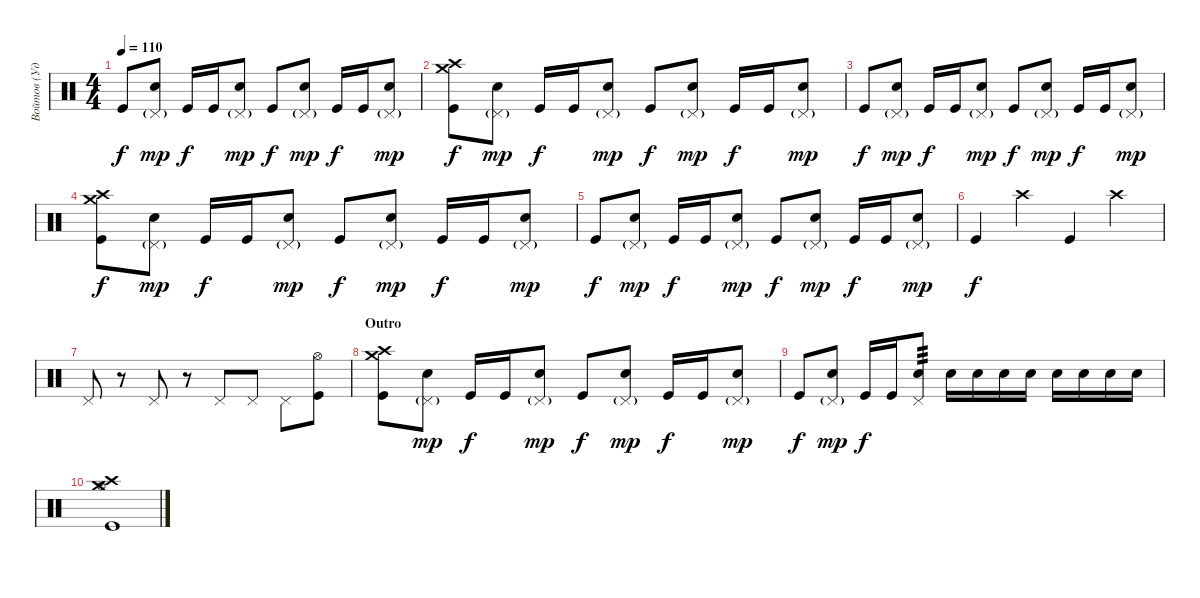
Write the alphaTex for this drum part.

\track ("Войтов (Ударные)" "Войтов (Уд") {instrument percussion}
\staff {score}
\articulation defaults
\ts (4 4)
\tempo 110
\clef neutral
\ks c "Kick (hit)".8{dy f}
("Pedal Hi-Hat (hit)"{g} "Electric Snare (hit)").8{dy mp} "Kick (hit)".16{dy f} "Kick (hit)".16 ("Pedal Hi-Hat (hit)"{g} "Electric Snare (hit)").8{dy mp} "Kick (hit)".8{dy f} ("Pedal Hi-Hat (hit)"{g} "Electric Snare (hit)").8{dy mp} "Kick (hit)".16{dy f} "Kick (hit)".16 ("Pedal Hi-Hat (hit)"{g} "Electric Snare (hit)").8{dy mp} |
("Crash medium (hit)" "Crash high (hit)" "Kick (hit)").8{dy f} ("Pedal Hi-Hat (hit)"{g} "Electric Snare (hit)").8{dy mp} "Kick (hit)".16{dy f} "Kick (hit)".16 ("Pedal Hi-Hat (hit)"{g} "Electric Snare (hit)").8{dy mp} "Kick (hit)".8{dy f} ("Pedal Hi-Hat (hit)"{g} "Electric Snare (hit)").8{dy mp} "Kick (hit)".16{dy f} "Kick (hit)".16 ("Pedal Hi-Hat (hit)"{g} "Electric Snare (hit)").8{dy mp} |
"Kick (hit)".8{dy f} ("Pedal Hi-Hat (hit)"{g} "Electric Snare (hit)").8{dy mp} "Kick (hit)".16{dy f} "Kick (hit)".16 ("Pedal Hi-Hat (hit)"{g} "Electric Snare (hit)").8{dy mp} "Kick (hit)".8{dy f} ("Pedal Hi-Hat (hit)"{g} "Electric Snare (hit)").8{dy mp} "Kick (hit)".16{dy f} "Kick (hit)".16 ("Pedal Hi-Hat (hit)"{g} "Electric Snare (hit)").8{dy mp} |
("Crash medium (hit)" "Crash high (hit)" "Kick (hit)").8{dy f} ("Pedal Hi-Hat (hit)"{g} "Electric Snare (hit)").8{dy mp} "Kick (hit)".16{dy f} "Kick (hit)".16 ("Pedal Hi-Hat (hit)"{g} "Electric Snare (hit)").8{dy mp} "Kick (hit)".8{dy f} ("Pedal Hi-Hat (hit)"{g} "Electric Snare (hit)").8{dy mp} "Kick (hit)".16{dy f} "Kick (hit)".16 ("Pedal Hi-Hat (hit)"{g} "Electric Snare (hit)").8{dy mp} |
"Kick (hit)".8{dy f} ("Pedal Hi-Hat (hit)"{g} "Electric Snare (hit)").8{dy mp} "Kick (hit)".16{dy f} "Kick (hit)".16 ("Pedal Hi-Hat (hit)"{g} "Electric Snare (hit)").8{dy mp} "Kick (hit)".8{dy f} ("Pedal Hi-Hat (hit)"{g} "Electric Snare (hit)").8{dy mp} "Kick (hit)".16{dy f} "Kick (hit)".16 ("Pedal Hi-Hat (hit)"{g} "Electric Snare (hit)").8{dy mp} |
"Kick (hit)".4{dy f} "Crash high (hit)".4 "Kick (hit)".4 "Crash high (hit)".4 |
"Pedal Hi-Hat (hit)".8 r.8 "Pedal Hi-Hat (hit)".8 r.8 "Pedal Hi-Hat (hit)".8 "Pedal Hi-Hat (hit)".8 "Pedal Hi-Hat (hit)".8 ("Hi-Hat (open)" "Kick (hit)").8 |
\section ("" "Outro")
("Crash medium (hit)" "Crash high (hit)" "Kick (hit)").8 ("Pedal Hi-Hat (hit)"{g} "Electric Snare (hit)").8{dy mp} "Kick (hit)".16{dy f} "Kick (hit)".16 ("Pedal Hi-Hat (hit)"{g} "Electric Snare (hit)").8{dy mp} "Kick (hit)".8{dy f} ("Pedal Hi-Hat (hit)"{g} "Electric Snare (hit)").8{dy mp} "Kick (hit)".16{dy f} "Kick (hit)".16 ("Pedal Hi-Hat (hit)"{g} "Electric Snare (hit)").8{dy mp} |
"Kick (hit)".8{dy f} ("Pedal Hi-Hat (hit)"{g} "Electric Snare (hit)").8{dy mp} "Kick (hit)".16{dy f} "Kick (hit)".16 ("Pedal Hi-Hat (hit)" "Electric Snare (hit)").8{tp 3} "Electric Snare (hit)".16 "Electric Snare (hit)".16 "Electric Snare (hit)".16 "Electric Snare (hit)".16 "Electric Snare (hit)".16 "Electric Snare (hit)".16 "Electric Snare (hit)".16 "Electric Snare (hit)".16 |
("Hi-Hat (open)" "Crash medium (hit)" "Crash high (hit)" "Kick (hit)").1
